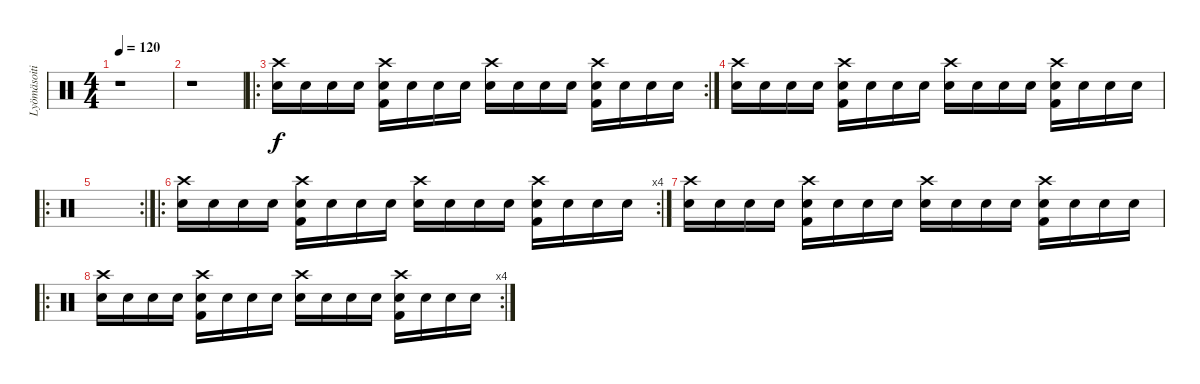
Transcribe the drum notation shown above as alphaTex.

\track ("Lyömäsoitin" "Lyömäsoiti") {instrument percussion}
\staff {score}
\articulation defaults
\ts (4 4)
\tempo 120
\clef neutral
\ks c
r.1{dy f} |
r.1 |
\ro
\rc 2
("Crash high (hit)" "Snare (hit) 2").16 "Snare (hit) 2".16 "Snare (hit) 2".16 "Snare (hit) 2".16 ("Crash high (hit)" "Kick (hit) 2" "Snare (hit) 2").16 "Snare (hit) 2".16 "Snare (hit) 2".16 "Snare (hit) 2".16 ("Crash high (hit)" "Snare (hit) 2").16 "Snare (hit) 2".16 "Snare (hit) 2".16 "Snare (hit) 2".16 ("Crash high (hit)" "Kick (hit) 2" "Snare (hit) 2").16 "Snare (hit) 2".16 "Snare (hit) 2".16 "Snare (hit) 2".16 |
("Crash high (hit)" "Snare (hit) 2").16 "Snare (hit) 2".16 "Snare (hit) 2".16 "Snare (hit) 2".16 ("Crash high (hit)" "Kick (hit) 2" "Snare (hit) 2").16 "Snare (hit) 2".16 "Snare (hit) 2".16 "Snare (hit) 2".16 ("Crash high (hit)" "Snare (hit) 2").16 "Snare (hit) 2".16 "Snare (hit) 2".16 "Snare (hit) 2".16 ("Crash high (hit)" "Kick (hit) 2" "Snare (hit) 2").16 "Snare (hit) 2".16 "Snare (hit) 2".16 "Snare (hit) 2".16 |
\ro
\rc 2
|
\ro
\rc 4
("Crash high (hit)" "Snare (hit) 2").16 "Snare (hit) 2".16 "Snare (hit) 2".16 "Snare (hit) 2".16 ("Crash high (hit)" "Kick (hit) 2" "Snare (hit) 2").16 "Snare (hit) 2".16 "Snare (hit) 2".16 "Snare (hit) 2".16 ("Crash high (hit)" "Snare (hit) 2").16 "Snare (hit) 2".16 "Snare (hit) 2".16 "Snare (hit) 2".16 ("Crash high (hit)" "Kick (hit) 2" "Snare (hit) 2").16 "Snare (hit) 2".16 "Snare (hit) 2".16 "Snare (hit) 2".16 |
("Crash high (hit)" "Snare (hit) 2").16 "Snare (hit) 2".16 "Snare (hit) 2".16 "Snare (hit) 2".16 ("Crash high (hit)" "Kick (hit) 2" "Snare (hit) 2").16 "Snare (hit) 2".16 "Snare (hit) 2".16 "Snare (hit) 2".16 ("Crash high (hit)" "Snare (hit) 2").16 "Snare (hit) 2".16 "Snare (hit) 2".16 "Snare (hit) 2".16 ("Crash high (hit)" "Kick (hit) 2" "Snare (hit) 2").16 "Snare (hit) 2".16 "Snare (hit) 2".16 "Snare (hit) 2".16 |
\ro
\rc 4
("Crash high (hit)" "Snare (hit) 2").16 "Snare (hit) 2".16 "Snare (hit) 2".16 "Snare (hit) 2".16 ("Crash high (hit)" "Kick (hit) 2" "Snare (hit) 2").16 "Snare (hit) 2".16 "Snare (hit) 2".16 "Snare (hit) 2".16 ("Crash high (hit)" "Snare (hit) 2").16 "Snare (hit) 2".16 "Snare (hit) 2".16 "Snare (hit) 2".16 ("Crash high (hit)" "Kick (hit) 2" "Snare (hit) 2").16 "Snare (hit) 2".16 "Snare (hit) 2".16 "Snare (hit) 2".16
